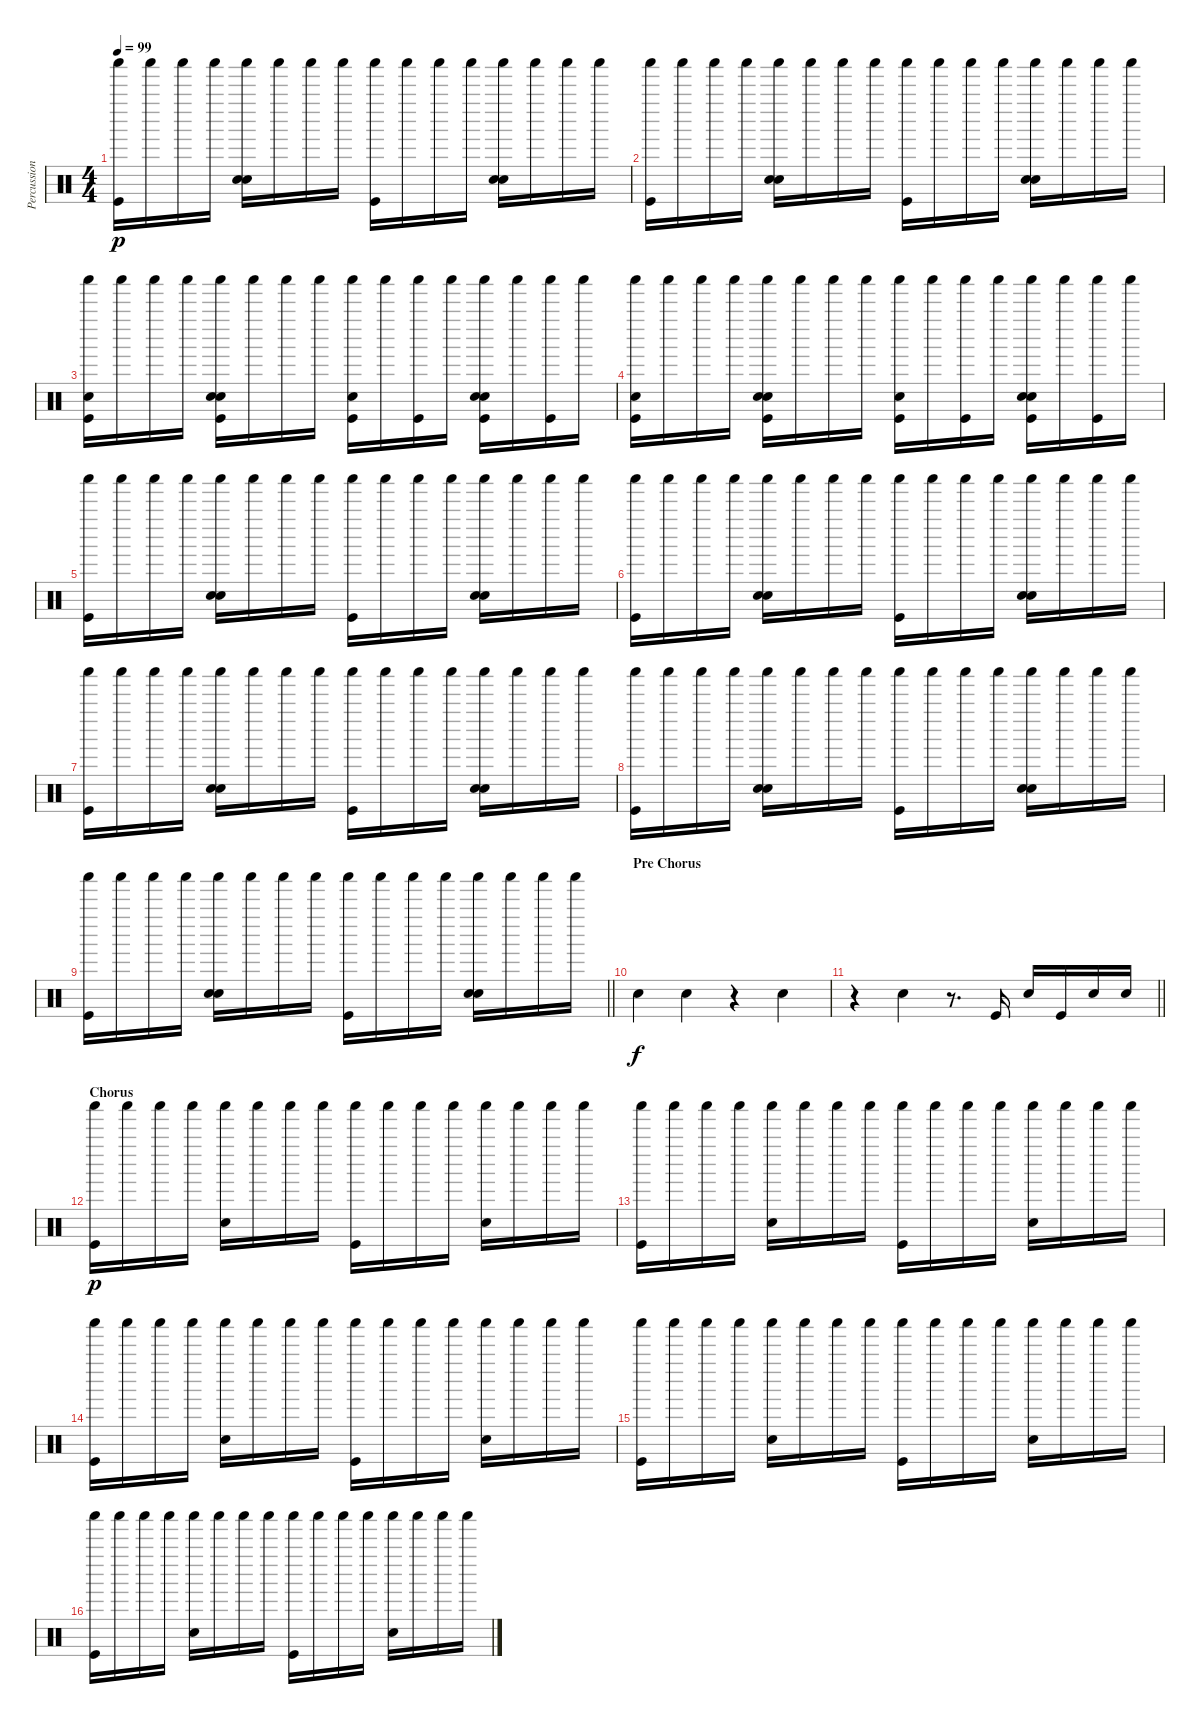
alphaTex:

\track ("Percussion" "Percussion") {instrument percussion}
\staff {score}
\articulation defaults
\ts (4 4)
\tempo 99
\clef neutral
\ks c
("Shaker (hit)" "Kick (hit)").16{dy p} "Shaker (hit)".16 "Shaker (hit)".16 "Shaker (hit)".16 ("Shaker (hit)" "Hand Clap (hit)" "Snare (hit) 2").16 "Shaker (hit)".16 "Shaker (hit)".16 "Shaker (hit)".16 ("Shaker (hit)" "Kick (hit)").16 "Shaker (hit)".16 "Shaker (hit)".16 "Shaker (hit)".16 ("Shaker (hit)" "Hand Clap (hit)" "Snare (hit) 2").16 "Shaker (hit)".16 "Shaker (hit)".16 "Shaker (hit)".16 |
("Shaker (hit)" "Kick (hit)").16 "Shaker (hit)".16 "Shaker (hit)".16 "Shaker (hit)".16 ("Shaker (hit)" "Hand Clap (hit)" "Snare (hit) 2").16 "Shaker (hit)".16 "Shaker (hit)".16 "Shaker (hit)".16 ("Shaker (hit)" "Kick (hit)").16 "Shaker (hit)".16 "Shaker (hit)".16 "Shaker (hit)".16 ("Shaker (hit)" "Hand Clap (hit)" "Snare (hit) 2").16 "Shaker (hit)".16 "Shaker (hit)".16 "Shaker (hit)".16 |
("Shaker (hit)" "Snare (hit) 2" "Kick (hit)").16 "Shaker (hit)".16 "Shaker (hit)".16 "Shaker (hit)".16 ("Shaker (hit)" "Hand Clap (hit)" "Snare (hit) 2" "Kick (hit)").16 "Shaker (hit)".16 "Shaker (hit)".16 "Shaker (hit)".16 ("Shaker (hit)" "Snare (hit) 2" "Kick (hit)").16 "Shaker (hit)".16 ("Shaker (hit)" "Kick (hit)").16 "Shaker (hit)".16 ("Shaker (hit)" "Hand Clap (hit)" "Snare (hit) 2" "Kick (hit)").16 "Shaker (hit)".16 ("Shaker (hit)" "Kick (hit)").16 "Shaker (hit)".16 |
("Shaker (hit)" "Snare (hit) 2" "Kick (hit)").16 "Shaker (hit)".16 "Shaker (hit)".16 "Shaker (hit)".16 ("Shaker (hit)" "Hand Clap (hit)" "Snare (hit) 2" "Kick (hit)").16 "Shaker (hit)".16 "Shaker (hit)".16 "Shaker (hit)".16 ("Shaker (hit)" "Snare (hit) 2" "Kick (hit)").16 "Shaker (hit)".16 ("Shaker (hit)" "Kick (hit)").16 "Shaker (hit)".16 ("Shaker (hit)" "Hand Clap (hit)" "Snare (hit) 2" "Kick (hit)").16 "Shaker (hit)".16 ("Shaker (hit)" "Kick (hit)").16 "Shaker (hit)".16 |
("Shaker (hit)" "Kick (hit)").16 "Shaker (hit)".16 "Shaker (hit)".16 "Shaker (hit)".16 ("Shaker (hit)" "Hand Clap (hit)" "Snare (hit) 2").16 "Shaker (hit)".16 "Shaker (hit)".16 "Shaker (hit)".16 ("Shaker (hit)" "Kick (hit)").16 "Shaker (hit)".16 "Shaker (hit)".16 "Shaker (hit)".16 ("Shaker (hit)" "Hand Clap (hit)" "Snare (hit) 2").16 "Shaker (hit)".16 "Shaker (hit)".16 "Shaker (hit)".16 |
("Shaker (hit)" "Kick (hit)").16 "Shaker (hit)".16 "Shaker (hit)".16 "Shaker (hit)".16 ("Shaker (hit)" "Hand Clap (hit)" "Snare (hit) 2").16 "Shaker (hit)".16 "Shaker (hit)".16 "Shaker (hit)".16 ("Shaker (hit)" "Kick (hit)").16 "Shaker (hit)".16 "Shaker (hit)".16 "Shaker (hit)".16 ("Shaker (hit)" "Hand Clap (hit)" "Snare (hit) 2").16 "Shaker (hit)".16 "Shaker (hit)".16 "Shaker (hit)".16 |
("Shaker (hit)" "Kick (hit)").16 "Shaker (hit)".16 "Shaker (hit)".16 "Shaker (hit)".16 ("Shaker (hit)" "Hand Clap (hit)" "Snare (hit) 2").16 "Shaker (hit)".16 "Shaker (hit)".16 "Shaker (hit)".16 ("Shaker (hit)" "Kick (hit)").16 "Shaker (hit)".16 "Shaker (hit)".16 "Shaker (hit)".16 ("Shaker (hit)" "Hand Clap (hit)" "Snare (hit) 2").16 "Shaker (hit)".16 "Shaker (hit)".16 "Shaker (hit)".16 |
("Shaker (hit)" "Kick (hit)").16 "Shaker (hit)".16 "Shaker (hit)".16 "Shaker (hit)".16 ("Shaker (hit)" "Hand Clap (hit)" "Snare (hit) 2").16 "Shaker (hit)".16 "Shaker (hit)".16 "Shaker (hit)".16 ("Shaker (hit)" "Kick (hit)").16 "Shaker (hit)".16 "Shaker (hit)".16 "Shaker (hit)".16 ("Shaker (hit)" "Hand Clap (hit)" "Snare (hit) 2").16 "Shaker (hit)".16 "Shaker (hit)".16 "Shaker (hit)".16 |
\barLineRight lightlight
("Shaker (hit)" "Kick (hit)").16 "Shaker (hit)".16 "Shaker (hit)".16 "Shaker (hit)".16 ("Shaker (hit)" "Hand Clap (hit)" "Snare (hit) 2").16 "Shaker (hit)".16 "Shaker (hit)".16 "Shaker (hit)".16 ("Shaker (hit)" "Kick (hit)").16 "Shaker (hit)".16 "Shaker (hit)".16 "Shaker (hit)".16 ("Shaker (hit)" "Hand Clap (hit)" "Snare (hit) 2").16 "Shaker (hit)".16 "Shaker (hit)".16 "Shaker (hit)".16 |
\section ("" "Pre Chorus")
"Snare (hit) 2".4{dy f} "Hand Clap (hit)".4 r.4 "Hand Clap (hit)".4 |
\barLineRight lightlight
r.4 "Hand Clap (hit)".4 r.8{d} "Kick (hit)".16 "Snare (hit) 2".16 "Kick (hit)".16 "Snare (hit) 2".16 "Snare (hit) 2".16 |
\section ("" "Chorus")
("Shaker (hit)" "Kick (hit)").16{dy p} "Shaker (hit)".16 "Shaker (hit)".16 "Shaker (hit)".16 ("Shaker (hit)" "Snare (hit) 2").16 "Shaker (hit)".16 "Shaker (hit)".16 "Shaker (hit)".16 ("Shaker (hit)" "Kick (hit)").16 "Shaker (hit)".16 "Shaker (hit)".16 "Shaker (hit)".16 ("Shaker (hit)" "Snare (hit) 2").16 "Shaker (hit)".16 "Shaker (hit)".16 "Shaker (hit)".16 |
("Shaker (hit)" "Kick (hit)").16 "Shaker (hit)".16 "Shaker (hit)".16 "Shaker (hit)".16 ("Shaker (hit)" "Snare (hit) 2").16 "Shaker (hit)".16 "Shaker (hit)".16 "Shaker (hit)".16 ("Shaker (hit)" "Kick (hit)").16 "Shaker (hit)".16 "Shaker (hit)".16 "Shaker (hit)".16 ("Shaker (hit)" "Snare (hit) 2").16 "Shaker (hit)".16 "Shaker (hit)".16 "Shaker (hit)".16 |
("Shaker (hit)" "Kick (hit)").16 "Shaker (hit)".16 "Shaker (hit)".16 "Shaker (hit)".16 ("Shaker (hit)" "Snare (hit) 2").16 "Shaker (hit)".16 "Shaker (hit)".16 "Shaker (hit)".16 ("Shaker (hit)" "Kick (hit)").16 "Shaker (hit)".16 "Shaker (hit)".16 "Shaker (hit)".16 ("Shaker (hit)" "Snare (hit) 2").16 "Shaker (hit)".16 "Shaker (hit)".16 "Shaker (hit)".16 |
("Shaker (hit)" "Kick (hit)").16 "Shaker (hit)".16 "Shaker (hit)".16 "Shaker (hit)".16 ("Shaker (hit)" "Snare (hit) 2").16 "Shaker (hit)".16 "Shaker (hit)".16 "Shaker (hit)".16 ("Shaker (hit)" "Kick (hit)").16 "Shaker (hit)".16 "Shaker (hit)".16 "Shaker (hit)".16 ("Shaker (hit)" "Snare (hit) 2").16 "Shaker (hit)".16 "Shaker (hit)".16 "Shaker (hit)".16 |
("Shaker (hit)" "Kick (hit)").16 "Shaker (hit)".16 "Shaker (hit)".16 "Shaker (hit)".16 ("Shaker (hit)" "Snare (hit) 2").16 "Shaker (hit)".16 "Shaker (hit)".16 "Shaker (hit)".16 ("Shaker (hit)" "Kick (hit)").16 "Shaker (hit)".16 "Shaker (hit)".16 "Shaker (hit)".16 ("Shaker (hit)" "Snare (hit) 2").16 "Shaker (hit)".16 "Shaker (hit)".16 "Shaker (hit)".16
